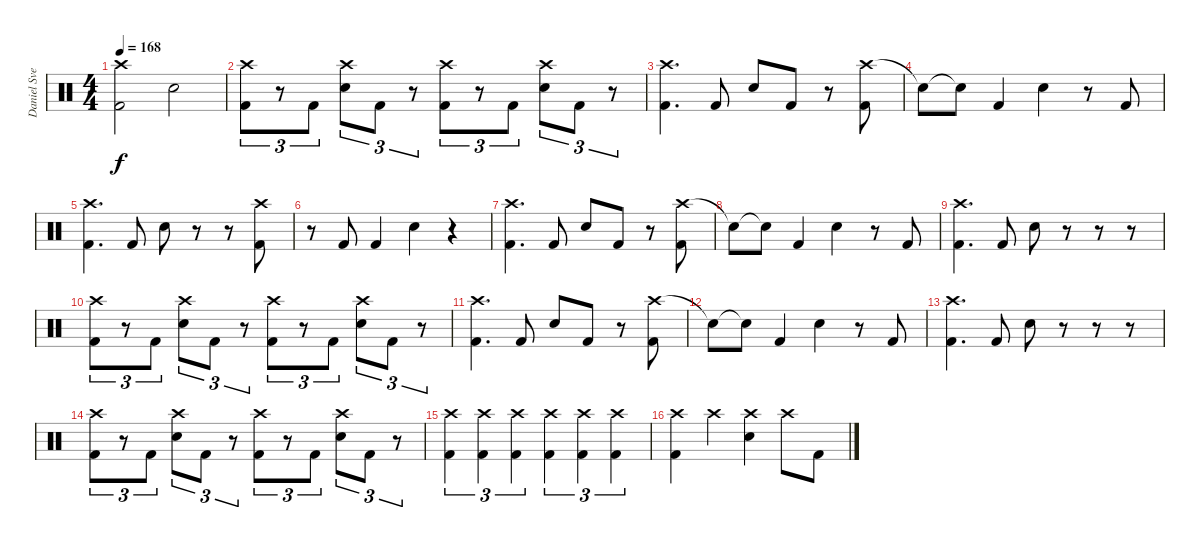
\track ("Daniel Svensson" "Daniel Sve") {instrument percussion}
\staff {score}
\articulation defaults
\ts (4 4)
\tempo 168
\clef neutral
\ks c
("Crash high (hit)" "Kick (hit) 2").2{dy f} "Electric Snare (hit)".2 |
("Crash high (hit)" "Kick (hit) 2").8{tu (3 2)} r.8{tu (3 2)} "Kick (hit) 2".8{tu (3 2)} ("Crash high (hit)" "Electric Snare (hit)").8{tu (3 2)} "Kick (hit) 2".8{tu (3 2)} r.8{tu (3 2)} ("Crash high (hit)" "Kick (hit) 2").8{tu (3 2)} r.8{tu (3 2)} "Kick (hit) 2".8{tu (3 2)} ("Crash high (hit)" "Electric Snare (hit)").8{tu (3 2)} "Kick (hit) 2".8{tu (3 2)} r.8{tu (3 2)} |
("Crash high (hit)" "Kick (hit) 2").4{d} "Kick (hit) 2".8 "Electric Snare (hit)".8 "Kick (hit) 2".8 r.8 ("Crash high (hit)" "Kick (hit) 2").8 |
"Snare (hit)"{t}.8 "Snare (hit)"{t}.8 "Kick (hit) 2".4 "Electric Snare (hit)".4 r.8 "Kick (hit) 2".8 |
("Crash high (hit)" "Kick (hit) 2").4{d} "Kick (hit) 2".8 "Electric Snare (hit)".8 r.8 r.8 ("Crash high (hit)" "Kick (hit) 2").8 |
r.8 "Kick (hit) 2".8 "Kick (hit) 2".4 "Electric Snare (hit)".4 r.4 |
("Crash high (hit)" "Kick (hit) 2").4{d} "Kick (hit) 2".8 "Electric Snare (hit)".8 "Kick (hit) 2".8 r.8 ("Crash high (hit)" "Kick (hit) 2").8 |
"Snare (hit)"{t}.8 "Snare (hit)"{t}.8 "Kick (hit) 2".4 "Electric Snare (hit)".4 r.8 "Kick (hit) 2".8 |
("Crash high (hit)" "Kick (hit) 2").4{d} "Kick (hit) 2".8 "Electric Snare (hit)".8 r.8 r.8 r.8 |
("Crash high (hit)" "Kick (hit) 2").8{tu (3 2)} r.8{tu (3 2)} "Kick (hit) 2".8{tu (3 2)} ("Crash high (hit)" "Electric Snare (hit)").8{tu (3 2)} "Kick (hit) 2".8{tu (3 2)} r.8{tu (3 2)} ("Crash high (hit)" "Kick (hit) 2").8{tu (3 2)} r.8{tu (3 2)} "Kick (hit) 2".8{tu (3 2)} ("Crash high (hit)" "Electric Snare (hit)").8{tu (3 2)} "Kick (hit) 2".8{tu (3 2)} r.8{tu (3 2)} |
("Crash high (hit)" "Kick (hit) 2").4{d} "Kick (hit) 2".8 "Electric Snare (hit)".8 "Kick (hit) 2".8 r.8 ("Crash high (hit)" "Kick (hit) 2").8 |
"Snare (hit)"{t}.8 "Snare (hit)"{t}.8 "Kick (hit) 2".4 "Electric Snare (hit)".4 r.8 "Kick (hit) 2".8 |
("Crash high (hit)" "Kick (hit) 2").4{d} "Kick (hit) 2".8 "Electric Snare (hit)".8 r.8 r.8 r.8 |
("Crash high (hit)" "Kick (hit) 2").8{tu (3 2)} r.8{tu (3 2)} "Kick (hit) 2".8{tu (3 2)} ("Crash high (hit)" "Electric Snare (hit)").8{tu (3 2)} "Kick (hit) 2".8{tu (3 2)} r.8{tu (3 2)} ("Crash high (hit)" "Kick (hit) 2").8{tu (3 2)} r.8{tu (3 2)} "Kick (hit) 2".8{tu (3 2)} ("Crash high (hit)" "Electric Snare (hit)").8{tu (3 2)} "Kick (hit) 2".8{tu (3 2)} r.8{tu (3 2)} |
("Crash high (hit)" "Kick (hit) 2").4{tu (3 2)} ("Crash high (hit)" "Kick (hit) 2").4{tu (3 2)} ("Crash high (hit)" "Kick (hit) 2").4{tu (3 2)} ("Crash high (hit)" "Kick (hit) 2").4{tu (3 2)} ("Crash high (hit)" "Kick (hit) 2").4{tu (3 2)} ("Crash high (hit)" "Kick (hit) 2").4{tu (3 2)} |
("Crash high (hit)" "Kick (hit) 2").4 "Crash high (hit)".4 ("Crash high (hit)" "Electric Snare (hit)").4 "Crash high (hit)".8 "Kick (hit) 2".8
